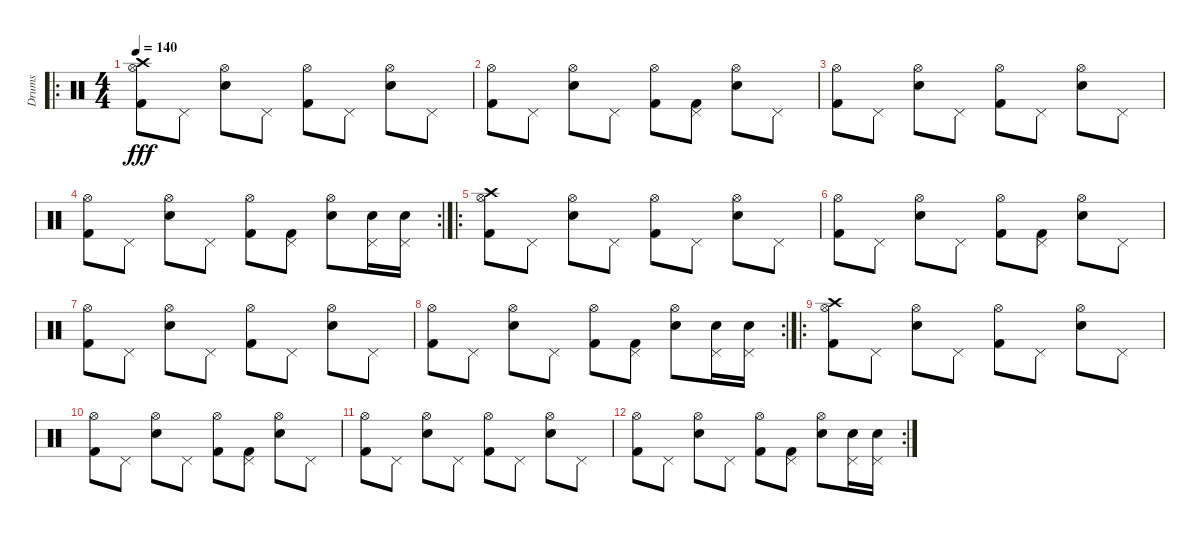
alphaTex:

\track ("Drums" "Drums") {instrument percussion}
\staff {score}
\articulation defaults
\ro
\ts (4 4)
\tempo 140
\clef neutral
\ks c
("Hi-Hat (open)" "Kick (hit) 2" "Crash high (hit)").8{dy fff} "Pedal Hi-Hat (hit)".8 ("Hi-Hat (open)" "Snare (hit) 2").8 "Pedal Hi-Hat (hit)".8 ("Hi-Hat (open)" "Kick (hit) 2").8 "Pedal Hi-Hat (hit)".8 ("Hi-Hat (open)" "Snare (hit) 2").8 "Pedal Hi-Hat (hit)".8 |
("Hi-Hat (open)" "Kick (hit) 2").8 "Pedal Hi-Hat (hit)".8 ("Hi-Hat (open)" "Snare (hit) 2").8 "Pedal Hi-Hat (hit)".8 ("Hi-Hat (open)" "Kick (hit) 2").8 ("Pedal Hi-Hat (hit)" "Kick (hit) 2").8 ("Hi-Hat (open)" "Snare (hit) 2").8 "Pedal Hi-Hat (hit)".8 |
("Hi-Hat (open)" "Kick (hit) 2").8 "Pedal Hi-Hat (hit)".8 ("Hi-Hat (open)" "Snare (hit) 2").8 "Pedal Hi-Hat (hit)".8 ("Hi-Hat (open)" "Kick (hit) 2").8 "Pedal Hi-Hat (hit)".8 ("Hi-Hat (open)" "Snare (hit) 2").8 "Pedal Hi-Hat (hit)".8 |
\rc 2
("Hi-Hat (open)" "Kick (hit) 2").8 "Pedal Hi-Hat (hit)".8 ("Hi-Hat (open)" "Snare (hit) 2").8 "Pedal Hi-Hat (hit)".8 ("Hi-Hat (open)" "Kick (hit) 2").8 ("Pedal Hi-Hat (hit)" "Kick (hit) 2").8 ("Hi-Hat (open)" "Snare (hit) 2").8 ("Pedal Hi-Hat (hit)" "Snare (hit) 2").16 ("Pedal Hi-Hat (hit)" "Snare (hit) 2").16 |
\ro
("Hi-Hat (open)" "Kick (hit) 2" "Crash high (hit)").8 "Pedal Hi-Hat (hit)".8 ("Hi-Hat (open)" "Snare (hit) 2").8 "Pedal Hi-Hat (hit)".8 ("Hi-Hat (open)" "Kick (hit) 2").8 "Pedal Hi-Hat (hit)".8 ("Hi-Hat (open)" "Snare (hit) 2").8 "Pedal Hi-Hat (hit)".8 |
("Hi-Hat (open)" "Kick (hit) 2").8 "Pedal Hi-Hat (hit)".8 ("Hi-Hat (open)" "Snare (hit) 2").8 "Pedal Hi-Hat (hit)".8 ("Hi-Hat (open)" "Kick (hit) 2").8 ("Pedal Hi-Hat (hit)" "Kick (hit) 2").8 ("Hi-Hat (open)" "Snare (hit) 2").8 "Pedal Hi-Hat (hit)".8 |
("Hi-Hat (open)" "Kick (hit) 2").8 "Pedal Hi-Hat (hit)".8 ("Hi-Hat (open)" "Snare (hit) 2").8 "Pedal Hi-Hat (hit)".8 ("Hi-Hat (open)" "Kick (hit) 2").8 "Pedal Hi-Hat (hit)".8 ("Hi-Hat (open)" "Snare (hit) 2").8 "Pedal Hi-Hat (hit)".8 |
\rc 2
("Hi-Hat (open)" "Kick (hit) 2").8 "Pedal Hi-Hat (hit)".8 ("Hi-Hat (open)" "Snare (hit) 2").8 "Pedal Hi-Hat (hit)".8 ("Hi-Hat (open)" "Kick (hit) 2").8 ("Pedal Hi-Hat (hit)" "Kick (hit) 2").8 ("Hi-Hat (open)" "Snare (hit) 2").8 ("Pedal Hi-Hat (hit)" "Snare (hit) 2").16 ("Pedal Hi-Hat (hit)" "Snare (hit) 2").16 |
\ro
("Hi-Hat (open)" "Kick (hit) 2" "Crash high (hit)").8 "Pedal Hi-Hat (hit)".8 ("Hi-Hat (open)" "Snare (hit) 2").8 "Pedal Hi-Hat (hit)".8 ("Hi-Hat (open)" "Kick (hit) 2").8 "Pedal Hi-Hat (hit)".8 ("Hi-Hat (open)" "Snare (hit) 2").8 "Pedal Hi-Hat (hit)".8 |
("Hi-Hat (open)" "Kick (hit) 2").8 "Pedal Hi-Hat (hit)".8 ("Hi-Hat (open)" "Snare (hit) 2").8 "Pedal Hi-Hat (hit)".8 ("Hi-Hat (open)" "Kick (hit) 2").8 ("Pedal Hi-Hat (hit)" "Kick (hit) 2").8 ("Hi-Hat (open)" "Snare (hit) 2").8 "Pedal Hi-Hat (hit)".8 |
("Hi-Hat (open)" "Kick (hit) 2").8 "Pedal Hi-Hat (hit)".8 ("Hi-Hat (open)" "Snare (hit) 2").8 "Pedal Hi-Hat (hit)".8 ("Hi-Hat (open)" "Kick (hit) 2").8 "Pedal Hi-Hat (hit)".8 ("Hi-Hat (open)" "Snare (hit) 2").8 "Pedal Hi-Hat (hit)".8 |
\rc 2
("Hi-Hat (open)" "Kick (hit) 2").8 "Pedal Hi-Hat (hit)".8 ("Hi-Hat (open)" "Snare (hit) 2").8 "Pedal Hi-Hat (hit)".8 ("Hi-Hat (open)" "Kick (hit) 2").8 ("Pedal Hi-Hat (hit)" "Kick (hit) 2").8 ("Hi-Hat (open)" "Snare (hit) 2").8 ("Pedal Hi-Hat (hit)" "Snare (hit) 2").16 ("Pedal Hi-Hat (hit)" "Snare (hit) 2").16
